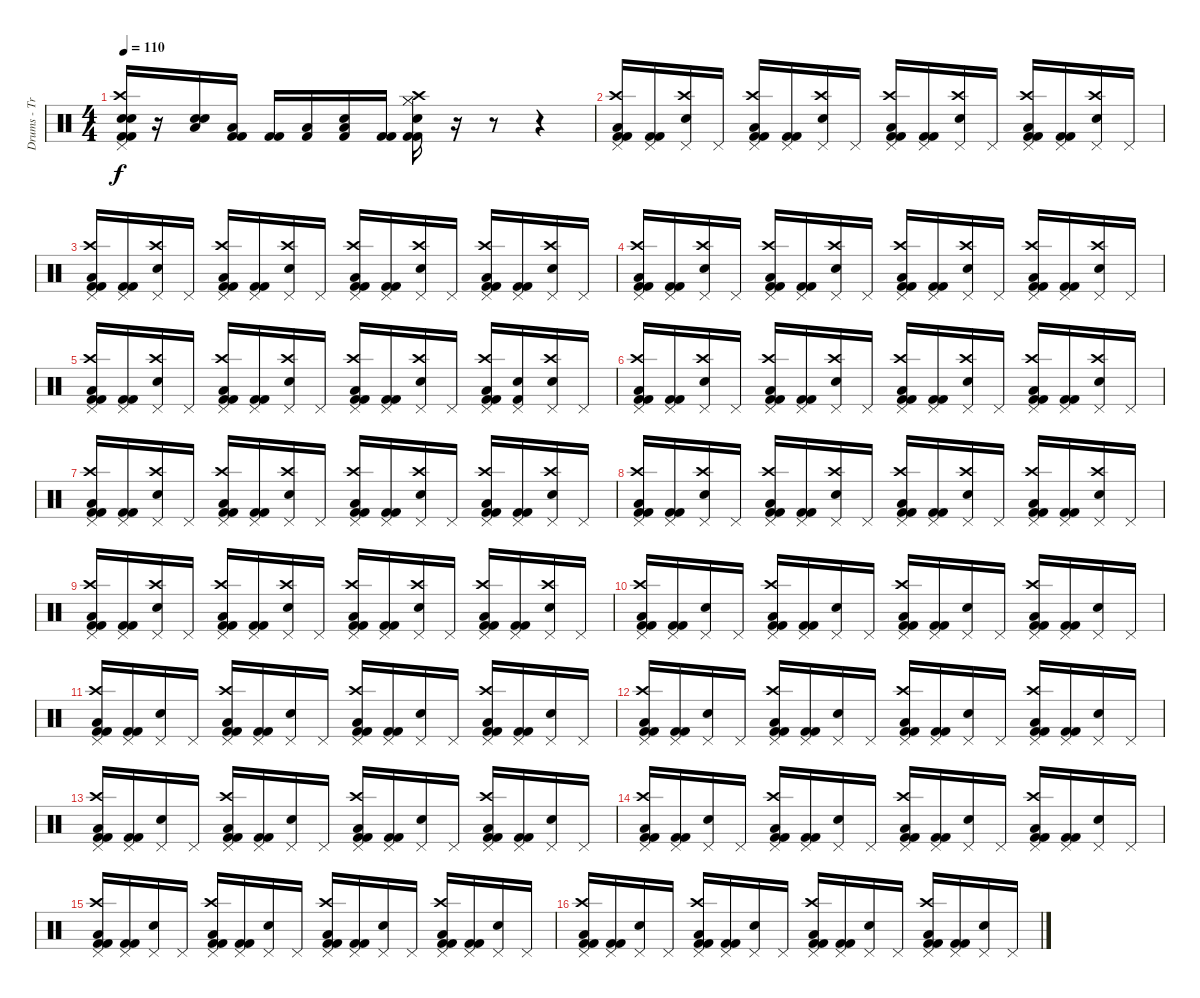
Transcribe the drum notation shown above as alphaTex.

\track ("Drums - Travis Barker" "Drums - Tr") {instrument percussion}
\staff {score}
\articulation defaults
\ts (4 4)
\tempo 110
\clef neutral
\ks c
("Pedal Hi-Hat (hit)" "Crash high (hit)" "Electric Snare (hit)" "Electric Snare (hit)" "Kick (hit) 2" "Kick (hit) 2").16{dy f} r.16 ("Low Tom (hit)" "Electric Snare (hit)" "Electric Snare (hit)").16 ("Low Tom (hit)" "Kick (hit) 2" "Kick (hit) 2").16 ("Kick (hit) 2" "Kick (hit) 2").16 ("Low Tom (hit)" "Kick (hit) 2").16 ("Low Tom (hit)" "Kick (hit) 2" "Electric Snare (hit)").16 ("Kick (hit) 2" "Kick (hit) 2").16 ("Hi-Hat (closed)" "Hi-Hat (closed)" "Crash high (hit)" "Kick (hit) 2" "Electric Snare (hit)" "Kick (hit) 2").16 r.16 r.8 r.4 |
("Pedal Hi-Hat (hit)" "Crash high (hit)" "Low Tom (hit)" "Kick (hit) 2" "Kick (hit) 2").16 ("Pedal Hi-Hat (hit)" "Kick (hit) 2" "Kick (hit) 2").16 ("Pedal Hi-Hat (hit)" "Crash high (hit)" "Electric Snare (hit)").16 "Pedal Hi-Hat (hit)".16 ("Pedal Hi-Hat (hit)" "Crash high (hit)" "Low Tom (hit)" "Kick (hit) 2" "Kick (hit) 2").16 ("Pedal Hi-Hat (hit)" "Kick (hit) 2" "Kick (hit) 2").16 ("Pedal Hi-Hat (hit)" "Crash high (hit)" "Electric Snare (hit)").16 "Pedal Hi-Hat (hit)".16 ("Pedal Hi-Hat (hit)" "Crash high (hit)" "Low Tom (hit)" "Kick (hit) 2" "Kick (hit) 2").16 ("Pedal Hi-Hat (hit)" "Kick (hit) 2" "Kick (hit) 2").16 ("Pedal Hi-Hat (hit)" "Crash high (hit)" "Electric Snare (hit)").16 "Pedal Hi-Hat (hit)".16 ("Pedal Hi-Hat (hit)" "Crash high (hit)" "Low Tom (hit)" "Kick (hit) 2" "Kick (hit) 2").16 ("Pedal Hi-Hat (hit)" "Kick (hit) 2" "Kick (hit) 2").16 ("Pedal Hi-Hat (hit)" "Crash high (hit)" "Electric Snare (hit)").16 "Pedal Hi-Hat (hit)".16 |
("Pedal Hi-Hat (hit)" "Crash high (hit)" "Low Tom (hit)" "Kick (hit) 2" "Kick (hit) 2").16 ("Pedal Hi-Hat (hit)" "Kick (hit) 2" "Kick (hit) 2").16 ("Pedal Hi-Hat (hit)" "Crash high (hit)" "Electric Snare (hit)").16 "Pedal Hi-Hat (hit)".16 ("Pedal Hi-Hat (hit)" "Crash high (hit)" "Low Tom (hit)" "Kick (hit) 2" "Kick (hit) 2").16 ("Pedal Hi-Hat (hit)" "Kick (hit) 2" "Kick (hit) 2").16 ("Pedal Hi-Hat (hit)" "Crash high (hit)" "Electric Snare (hit)").16 "Pedal Hi-Hat (hit)".16 ("Pedal Hi-Hat (hit)" "Crash high (hit)" "Low Tom (hit)" "Kick (hit) 2" "Kick (hit) 2").16 ("Pedal Hi-Hat (hit)" "Kick (hit) 2" "Kick (hit) 2").16 ("Pedal Hi-Hat (hit)" "Crash high (hit)" "Electric Snare (hit)").16 "Pedal Hi-Hat (hit)".16 ("Pedal Hi-Hat (hit)" "Crash high (hit)" "Low Tom (hit)" "Kick (hit) 2" "Kick (hit) 2").16 ("Pedal Hi-Hat (hit)" "Kick (hit) 2" "Kick (hit) 2").16 ("Pedal Hi-Hat (hit)" "Crash high (hit)" "Electric Snare (hit)").16 "Pedal Hi-Hat (hit)".16 |
("Pedal Hi-Hat (hit)" "Crash high (hit)" "Low Tom (hit)" "Kick (hit) 2" "Kick (hit) 2").16 ("Pedal Hi-Hat (hit)" "Kick (hit) 2" "Kick (hit) 2").16 ("Pedal Hi-Hat (hit)" "Crash high (hit)" "Electric Snare (hit)").16 "Pedal Hi-Hat (hit)".16 ("Pedal Hi-Hat (hit)" "Crash high (hit)" "Low Tom (hit)" "Kick (hit) 2" "Kick (hit) 2").16 ("Pedal Hi-Hat (hit)" "Kick (hit) 2" "Kick (hit) 2").16 ("Pedal Hi-Hat (hit)" "Crash high (hit)" "Electric Snare (hit)").16 "Pedal Hi-Hat (hit)".16 ("Pedal Hi-Hat (hit)" "Crash high (hit)" "Low Tom (hit)" "Kick (hit) 2" "Kick (hit) 2").16 ("Pedal Hi-Hat (hit)" "Kick (hit) 2" "Kick (hit) 2").16 ("Pedal Hi-Hat (hit)" "Crash high (hit)" "Electric Snare (hit)").16 "Pedal Hi-Hat (hit)".16 ("Pedal Hi-Hat (hit)" "Crash high (hit)" "Low Tom (hit)" "Kick (hit) 2" "Kick (hit) 2").16 ("Pedal Hi-Hat (hit)" "Kick (hit) 2" "Kick (hit) 2").16 ("Pedal Hi-Hat (hit)" "Crash high (hit)" "Electric Snare (hit)").16 "Pedal Hi-Hat (hit)".16 |
("Pedal Hi-Hat (hit)" "Crash high (hit)" "Low Tom (hit)" "Kick (hit) 2" "Kick (hit) 2").16 ("Pedal Hi-Hat (hit)" "Kick (hit) 2" "Kick (hit) 2").16 ("Pedal Hi-Hat (hit)" "Crash high (hit)" "Electric Snare (hit)").16 "Pedal Hi-Hat (hit)".16 ("Pedal Hi-Hat (hit)" "Crash high (hit)" "Low Tom (hit)" "Kick (hit) 2" "Kick (hit) 2").16 ("Pedal Hi-Hat (hit)" "Kick (hit) 2" "Kick (hit) 2").16 ("Pedal Hi-Hat (hit)" "Crash high (hit)" "Electric Snare (hit)").16 "Pedal Hi-Hat (hit)".16 ("Pedal Hi-Hat (hit)" "Crash high (hit)" "Low Tom (hit)" "Kick (hit) 2" "Kick (hit) 2").16 ("Pedal Hi-Hat (hit)" "Kick (hit) 2" "Kick (hit) 2").16 ("Pedal Hi-Hat (hit)" "Crash high (hit)" "Electric Snare (hit)").16 "Pedal Hi-Hat (hit)".16 ("Pedal Hi-Hat (hit)" "Crash high (hit)" "Low Tom (hit)" "Kick (hit) 2" "Kick (hit) 2").16 ("Pedal Hi-Hat (hit)" "Electric Snare (hit)" "Kick (hit) 2").16 ("Pedal Hi-Hat (hit)" "Crash high (hit)" "Electric Snare (hit)").16 "Pedal Hi-Hat (hit)".16 |
("Pedal Hi-Hat (hit)" "Crash high (hit)" "Low Tom (hit)" "Kick (hit) 2" "Kick (hit) 2").16 ("Pedal Hi-Hat (hit)" "Kick (hit) 2" "Kick (hit) 2").16 ("Pedal Hi-Hat (hit)" "Crash high (hit)" "Electric Snare (hit)").16 "Pedal Hi-Hat (hit)".16 ("Pedal Hi-Hat (hit)" "Crash high (hit)" "Low Tom (hit)" "Kick (hit) 2" "Kick (hit) 2").16 ("Pedal Hi-Hat (hit)" "Kick (hit) 2" "Kick (hit) 2").16 ("Pedal Hi-Hat (hit)" "Crash high (hit)" "Electric Snare (hit)").16 "Pedal Hi-Hat (hit)".16 ("Pedal Hi-Hat (hit)" "Crash high (hit)" "Low Tom (hit)" "Kick (hit) 2" "Kick (hit) 2").16 ("Pedal Hi-Hat (hit)" "Kick (hit) 2" "Kick (hit) 2").16 ("Pedal Hi-Hat (hit)" "Crash high (hit)" "Electric Snare (hit)").16 "Pedal Hi-Hat (hit)".16 ("Pedal Hi-Hat (hit)" "Crash high (hit)" "Low Tom (hit)" "Kick (hit) 2" "Kick (hit) 2").16 ("Pedal Hi-Hat (hit)" "Kick (hit) 2" "Kick (hit) 2").16 ("Pedal Hi-Hat (hit)" "Crash high (hit)" "Electric Snare (hit)").16 "Pedal Hi-Hat (hit)".16 |
("Pedal Hi-Hat (hit)" "Crash high (hit)" "Low Tom (hit)" "Kick (hit) 2" "Kick (hit) 2").16 ("Pedal Hi-Hat (hit)" "Kick (hit) 2" "Kick (hit) 2").16 ("Pedal Hi-Hat (hit)" "Crash high (hit)" "Electric Snare (hit)").16 "Pedal Hi-Hat (hit)".16 ("Pedal Hi-Hat (hit)" "Crash high (hit)" "Low Tom (hit)" "Kick (hit) 2" "Kick (hit) 2").16 ("Pedal Hi-Hat (hit)" "Kick (hit) 2" "Kick (hit) 2").16 ("Pedal Hi-Hat (hit)" "Crash high (hit)" "Electric Snare (hit)").16 "Pedal Hi-Hat (hit)".16 ("Pedal Hi-Hat (hit)" "Crash high (hit)" "Low Tom (hit)" "Kick (hit) 2" "Kick (hit) 2").16 ("Pedal Hi-Hat (hit)" "Kick (hit) 2" "Kick (hit) 2").16 ("Pedal Hi-Hat (hit)" "Crash high (hit)" "Electric Snare (hit)").16 "Pedal Hi-Hat (hit)".16 ("Pedal Hi-Hat (hit)" "Crash high (hit)" "Low Tom (hit)" "Kick (hit) 2" "Kick (hit) 2").16 ("Pedal Hi-Hat (hit)" "Kick (hit) 2" "Kick (hit) 2").16 ("Pedal Hi-Hat (hit)" "Crash high (hit)" "Electric Snare (hit)").16 "Pedal Hi-Hat (hit)".16 |
("Pedal Hi-Hat (hit)" "Crash high (hit)" "Low Tom (hit)" "Kick (hit) 2" "Kick (hit) 2").16 ("Pedal Hi-Hat (hit)" "Kick (hit) 2" "Kick (hit) 2").16 ("Pedal Hi-Hat (hit)" "Crash high (hit)" "Electric Snare (hit)").16 "Pedal Hi-Hat (hit)".16 ("Pedal Hi-Hat (hit)" "Crash high (hit)" "Low Tom (hit)" "Kick (hit) 2" "Kick (hit) 2").16 ("Pedal Hi-Hat (hit)" "Kick (hit) 2" "Kick (hit) 2").16 ("Pedal Hi-Hat (hit)" "Crash high (hit)" "Electric Snare (hit)").16 "Pedal Hi-Hat (hit)".16 ("Pedal Hi-Hat (hit)" "Crash high (hit)" "Low Tom (hit)" "Kick (hit) 2" "Kick (hit) 2").16 ("Pedal Hi-Hat (hit)" "Kick (hit) 2" "Kick (hit) 2").16 ("Pedal Hi-Hat (hit)" "Crash high (hit)" "Electric Snare (hit)").16 "Pedal Hi-Hat (hit)".16 ("Pedal Hi-Hat (hit)" "Crash high (hit)" "Low Tom (hit)" "Kick (hit) 2" "Kick (hit) 2").16 ("Pedal Hi-Hat (hit)" "Kick (hit) 2" "Kick (hit) 2").16 ("Pedal Hi-Hat (hit)" "Crash high (hit)" "Electric Snare (hit)").16 "Pedal Hi-Hat (hit)".16 |
("Pedal Hi-Hat (hit)" "Crash high (hit)" "Low Tom (hit)" "Kick (hit) 2" "Kick (hit) 2").16 ("Pedal Hi-Hat (hit)" "Kick (hit) 2" "Kick (hit) 2").16 ("Pedal Hi-Hat (hit)" "Crash high (hit)" "Electric Snare (hit)").16 "Pedal Hi-Hat (hit)".16 ("Pedal Hi-Hat (hit)" "Crash high (hit)" "Low Tom (hit)" "Kick (hit) 2" "Kick (hit) 2").16 ("Pedal Hi-Hat (hit)" "Kick (hit) 2" "Kick (hit) 2").16 ("Pedal Hi-Hat (hit)" "Crash high (hit)" "Electric Snare (hit)").16 "Pedal Hi-Hat (hit)".16 ("Pedal Hi-Hat (hit)" "Crash high (hit)" "Low Tom (hit)" "Kick (hit) 2" "Kick (hit) 2").16 ("Pedal Hi-Hat (hit)" "Kick (hit) 2" "Kick (hit) 2").16 ("Pedal Hi-Hat (hit)" "Crash high (hit)" "Electric Snare (hit)").16 "Pedal Hi-Hat (hit)".16 ("Pedal Hi-Hat (hit)" "Crash high (hit)" "Low Tom (hit)" "Kick (hit) 2" "Kick (hit) 2").16 ("Pedal Hi-Hat (hit)" "Kick (hit) 2" "Kick (hit) 2").16 ("Pedal Hi-Hat (hit)" "Crash high (hit)" "Electric Snare (hit)").16 "Pedal Hi-Hat (hit)".16 |
("Pedal Hi-Hat (hit)" "Crash high (hit)" "Low Tom (hit)" "Kick (hit) 2" "Kick (hit) 2").16 ("Pedal Hi-Hat (hit)" "Kick (hit) 2" "Kick (hit) 2").16 ("Pedal Hi-Hat (hit)" "Electric Snare (hit)").16 "Pedal Hi-Hat (hit)".16 ("Pedal Hi-Hat (hit)" "Crash high (hit)" "Low Tom (hit)" "Kick (hit) 2" "Kick (hit) 2").16 ("Pedal Hi-Hat (hit)" "Kick (hit) 2" "Kick (hit) 2").16 ("Pedal Hi-Hat (hit)" "Electric Snare (hit)").16 "Pedal Hi-Hat (hit)".16 ("Pedal Hi-Hat (hit)" "Crash high (hit)" "Low Tom (hit)" "Kick (hit) 2" "Kick (hit) 2").16 ("Pedal Hi-Hat (hit)" "Kick (hit) 2" "Kick (hit) 2").16 ("Pedal Hi-Hat (hit)" "Electric Snare (hit)").16 "Pedal Hi-Hat (hit)".16 ("Pedal Hi-Hat (hit)" "Crash high (hit)" "Low Tom (hit)" "Kick (hit) 2" "Kick (hit) 2").16 ("Pedal Hi-Hat (hit)" "Kick (hit) 2" "Kick (hit) 2").16 ("Pedal Hi-Hat (hit)" "Electric Snare (hit)").16 "Pedal Hi-Hat (hit)".16 |
("Pedal Hi-Hat (hit)" "Crash high (hit)" "Low Tom (hit)" "Kick (hit) 2" "Kick (hit) 2").16 ("Pedal Hi-Hat (hit)" "Kick (hit) 2" "Kick (hit) 2").16 ("Pedal Hi-Hat (hit)" "Electric Snare (hit)").16 "Pedal Hi-Hat (hit)".16 ("Pedal Hi-Hat (hit)" "Crash high (hit)" "Low Tom (hit)" "Kick (hit) 2" "Kick (hit) 2").16 ("Pedal Hi-Hat (hit)" "Kick (hit) 2" "Kick (hit) 2").16 ("Pedal Hi-Hat (hit)" "Electric Snare (hit)").16 "Pedal Hi-Hat (hit)".16 ("Pedal Hi-Hat (hit)" "Crash high (hit)" "Low Tom (hit)" "Kick (hit) 2" "Kick (hit) 2").16 ("Pedal Hi-Hat (hit)" "Kick (hit) 2" "Kick (hit) 2").16 ("Pedal Hi-Hat (hit)" "Electric Snare (hit)").16 "Pedal Hi-Hat (hit)".16 ("Pedal Hi-Hat (hit)" "Crash high (hit)" "Low Tom (hit)" "Kick (hit) 2" "Kick (hit) 2").16 ("Pedal Hi-Hat (hit)" "Kick (hit) 2" "Kick (hit) 2").16 ("Pedal Hi-Hat (hit)" "Electric Snare (hit)").16 "Pedal Hi-Hat (hit)".16 |
("Pedal Hi-Hat (hit)" "Crash high (hit)" "Low Tom (hit)" "Kick (hit) 2" "Kick (hit) 2").16 ("Pedal Hi-Hat (hit)" "Kick (hit) 2" "Kick (hit) 2").16 ("Pedal Hi-Hat (hit)" "Electric Snare (hit)").16 "Pedal Hi-Hat (hit)".16 ("Pedal Hi-Hat (hit)" "Crash high (hit)" "Low Tom (hit)" "Kick (hit) 2" "Kick (hit) 2").16 ("Pedal Hi-Hat (hit)" "Kick (hit) 2" "Kick (hit) 2").16 ("Pedal Hi-Hat (hit)" "Electric Snare (hit)").16 "Pedal Hi-Hat (hit)".16 ("Pedal Hi-Hat (hit)" "Crash high (hit)" "Low Tom (hit)" "Kick (hit) 2" "Kick (hit) 2").16 ("Pedal Hi-Hat (hit)" "Kick (hit) 2" "Kick (hit) 2").16 ("Pedal Hi-Hat (hit)" "Electric Snare (hit)").16 "Pedal Hi-Hat (hit)".16 ("Pedal Hi-Hat (hit)" "Crash high (hit)" "Low Tom (hit)" "Kick (hit) 2" "Kick (hit) 2").16 ("Pedal Hi-Hat (hit)" "Kick (hit) 2" "Kick (hit) 2").16 ("Pedal Hi-Hat (hit)" "Electric Snare (hit)").16 "Pedal Hi-Hat (hit)".16 |
("Pedal Hi-Hat (hit)" "Crash high (hit)" "Low Tom (hit)" "Kick (hit) 2" "Kick (hit) 2").16 ("Pedal Hi-Hat (hit)" "Kick (hit) 2" "Kick (hit) 2").16 ("Pedal Hi-Hat (hit)" "Electric Snare (hit)").16 "Pedal Hi-Hat (hit)".16 ("Pedal Hi-Hat (hit)" "Crash high (hit)" "Low Tom (hit)" "Kick (hit) 2" "Kick (hit) 2").16 ("Pedal Hi-Hat (hit)" "Kick (hit) 2" "Kick (hit) 2").16 ("Pedal Hi-Hat (hit)" "Electric Snare (hit)").16 "Pedal Hi-Hat (hit)".16 ("Pedal Hi-Hat (hit)" "Crash high (hit)" "Low Tom (hit)" "Kick (hit) 2" "Kick (hit) 2").16 ("Pedal Hi-Hat (hit)" "Kick (hit) 2" "Kick (hit) 2").16 ("Pedal Hi-Hat (hit)" "Electric Snare (hit)").16 "Pedal Hi-Hat (hit)".16 ("Pedal Hi-Hat (hit)" "Crash high (hit)" "Low Tom (hit)" "Kick (hit) 2" "Kick (hit) 2").16 ("Pedal Hi-Hat (hit)" "Kick (hit) 2" "Kick (hit) 2").16 ("Pedal Hi-Hat (hit)" "Electric Snare (hit)").16 "Pedal Hi-Hat (hit)".16 |
("Pedal Hi-Hat (hit)" "Crash high (hit)" "Low Tom (hit)" "Kick (hit) 2" "Kick (hit) 2").16 ("Pedal Hi-Hat (hit)" "Kick (hit) 2" "Kick (hit) 2").16 ("Pedal Hi-Hat (hit)" "Electric Snare (hit)").16 "Pedal Hi-Hat (hit)".16 ("Pedal Hi-Hat (hit)" "Crash high (hit)" "Low Tom (hit)" "Kick (hit) 2" "Kick (hit) 2").16 ("Pedal Hi-Hat (hit)" "Kick (hit) 2" "Kick (hit) 2").16 ("Pedal Hi-Hat (hit)" "Electric Snare (hit)").16 "Pedal Hi-Hat (hit)".16 ("Pedal Hi-Hat (hit)" "Crash high (hit)" "Low Tom (hit)" "Kick (hit) 2" "Kick (hit) 2").16 ("Pedal Hi-Hat (hit)" "Kick (hit) 2" "Kick (hit) 2").16 ("Pedal Hi-Hat (hit)" "Electric Snare (hit)").16 "Pedal Hi-Hat (hit)".16 ("Pedal Hi-Hat (hit)" "Crash high (hit)" "Low Tom (hit)" "Kick (hit) 2" "Kick (hit) 2").16 ("Pedal Hi-Hat (hit)" "Kick (hit) 2" "Kick (hit) 2").16 ("Pedal Hi-Hat (hit)" "Electric Snare (hit)").16 "Pedal Hi-Hat (hit)".16 |
("Pedal Hi-Hat (hit)" "Crash high (hit)" "Low Tom (hit)" "Kick (hit) 2" "Kick (hit) 2").16 ("Pedal Hi-Hat (hit)" "Kick (hit) 2" "Kick (hit) 2").16 ("Pedal Hi-Hat (hit)" "Electric Snare (hit)").16 "Pedal Hi-Hat (hit)".16 ("Pedal Hi-Hat (hit)" "Crash high (hit)" "Low Tom (hit)" "Kick (hit) 2" "Kick (hit) 2").16 ("Pedal Hi-Hat (hit)" "Kick (hit) 2" "Kick (hit) 2").16 ("Pedal Hi-Hat (hit)" "Electric Snare (hit)").16 "Pedal Hi-Hat (hit)".16 ("Pedal Hi-Hat (hit)" "Crash high (hit)" "Low Tom (hit)" "Kick (hit) 2" "Kick (hit) 2").16 ("Pedal Hi-Hat (hit)" "Kick (hit) 2" "Kick (hit) 2").16 ("Pedal Hi-Hat (hit)" "Electric Snare (hit)").16 "Pedal Hi-Hat (hit)".16 ("Pedal Hi-Hat (hit)" "Crash high (hit)" "Low Tom (hit)" "Kick (hit) 2" "Kick (hit) 2").16 ("Pedal Hi-Hat (hit)" "Kick (hit) 2" "Kick (hit) 2").16 ("Pedal Hi-Hat (hit)" "Electric Snare (hit)").16 "Pedal Hi-Hat (hit)".16 |
("Pedal Hi-Hat (hit)" "Crash high (hit)" "Low Tom (hit)" "Kick (hit) 2" "Kick (hit) 2").16 ("Pedal Hi-Hat (hit)" "Kick (hit) 2" "Kick (hit) 2").16 ("Pedal Hi-Hat (hit)" "Electric Snare (hit)").16 "Pedal Hi-Hat (hit)".16 ("Pedal Hi-Hat (hit)" "Crash high (hit)" "Low Tom (hit)" "Kick (hit) 2" "Kick (hit) 2").16 ("Pedal Hi-Hat (hit)" "Kick (hit) 2" "Kick (hit) 2").16 ("Pedal Hi-Hat (hit)" "Electric Snare (hit)").16 "Pedal Hi-Hat (hit)".16 ("Pedal Hi-Hat (hit)" "Crash high (hit)" "Low Tom (hit)" "Kick (hit) 2" "Kick (hit) 2").16 ("Pedal Hi-Hat (hit)" "Kick (hit) 2" "Kick (hit) 2").16 ("Pedal Hi-Hat (hit)" "Electric Snare (hit)").16 "Pedal Hi-Hat (hit)".16 ("Pedal Hi-Hat (hit)" "Crash high (hit)" "Low Tom (hit)" "Kick (hit) 2" "Kick (hit) 2").16 ("Pedal Hi-Hat (hit)" "Kick (hit) 2" "Kick (hit) 2").16 ("Pedal Hi-Hat (hit)" "Electric Snare (hit)").16 "Pedal Hi-Hat (hit)".16
